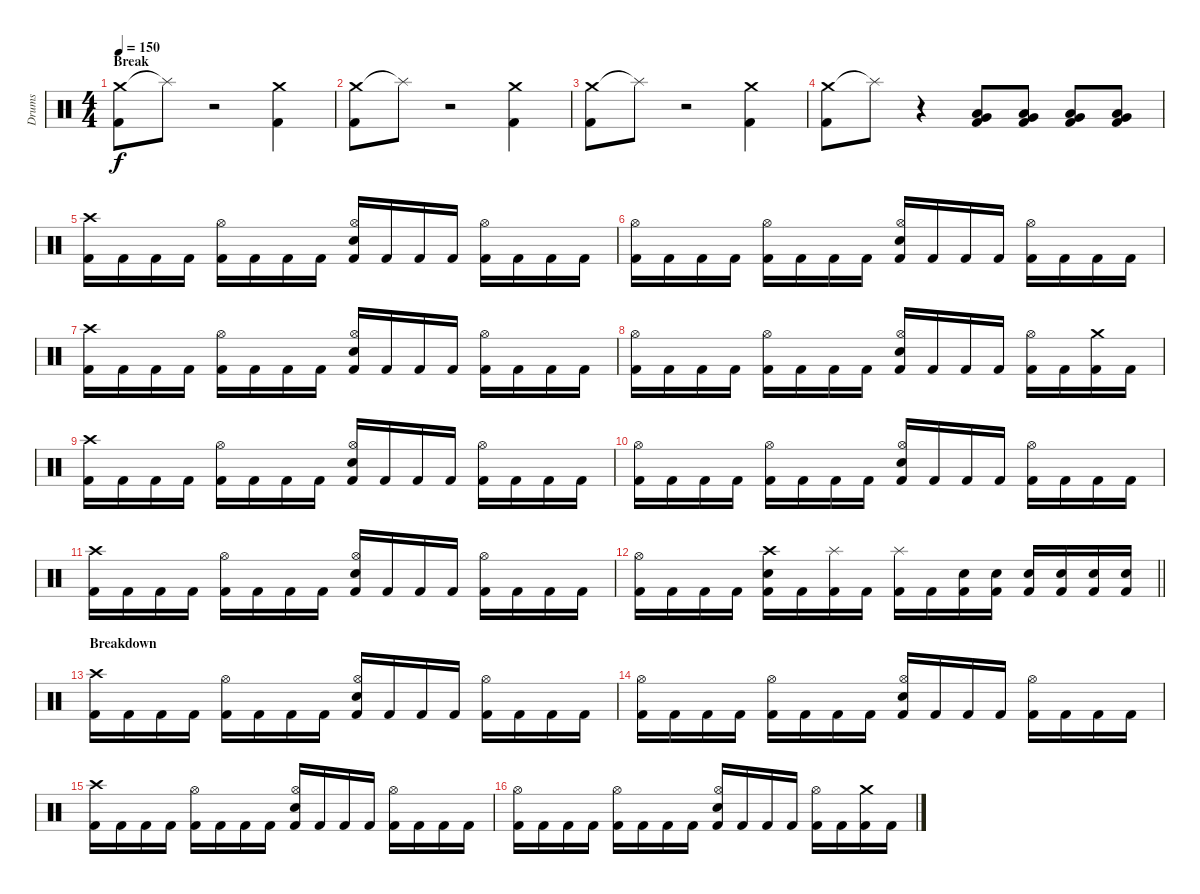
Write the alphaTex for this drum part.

\track ("Drums" "Drums") {instrument percussion}
\staff {score}
\articulation defaults
\ts (4 4)
\section ("" "Break")
\tempo 150
\clef neutral
\ks c
("Crash medium (hit)" "Kick (hit) 2").8{dy f volume 0} "Splash (hit)"{t}.8 r.2 ("Crash medium (hit)" "Kick (hit) 2").4{volume 15} |
("Crash medium (hit)" "Kick (hit) 2").8{volume 0} "Splash (hit)"{t}.8 r.2 ("Crash medium (hit)" "Kick (hit) 2").4{volume 15} |
("Crash medium (hit)" "Kick (hit) 2").8{volume 0} "Splash (hit)"{t}.8 r.2 ("Crash medium (hit)" "Kick (hit) 2").4{volume 15} |
("Crash medium (hit)" "Kick (hit) 2").8{volume 0} "Splash (hit)"{t}.8 r.4 ("Very Low Tom (hit)" "Low Floor Tom (hit)" "Kick (hit) 2").8{volume 15} ("Very Low Tom (hit)" "Low Floor Tom (hit)" "Kick (hit) 2").8 ("Very Low Tom (hit)" "Low Floor Tom (hit)" "Kick (hit) 2").8 ("Very Low Tom (hit)" "Low Floor Tom (hit)" "Kick (hit) 2").8 |
("Crash high (hit)" "Kick (hit) 2").16 "Kick (hit) 2".16 "Kick (hit) 2".16 "Kick (hit) 2".16 ("Hi-Hat (open)" "Kick (hit) 2").16 "Kick (hit) 2".16 "Kick (hit) 2".16 "Kick (hit) 2".16 ("Hi-Hat (open)" "Snare (hit) 2" "Kick (hit) 2").16 "Kick (hit) 2".16 "Kick (hit) 2".16 "Kick (hit) 2".16 ("Hi-Hat (open)" "Kick (hit) 2").16 "Kick (hit) 2".16 "Kick (hit) 2".16 "Kick (hit) 2".16 |
("Hi-Hat (open)" "Kick (hit) 2").16 "Kick (hit) 2".16 "Kick (hit) 2".16 "Kick (hit) 2".16 ("Hi-Hat (open)" "Kick (hit) 2").16 "Kick (hit) 2".16 "Kick (hit) 2".16 "Kick (hit) 2".16 ("Hi-Hat (open)" "Snare (hit) 2" "Kick (hit) 2").16 "Kick (hit) 2".16 "Kick (hit) 2".16 "Kick (hit) 2".16 ("Hi-Hat (open)" "Kick (hit) 2").16 "Kick (hit) 2".16 "Kick (hit) 2".16 "Kick (hit) 2".16 |
("Crash high (hit)" "Kick (hit) 2").16 "Kick (hit) 2".16 "Kick (hit) 2".16 "Kick (hit) 2".16 ("Hi-Hat (open)" "Kick (hit) 2").16 "Kick (hit) 2".16 "Kick (hit) 2".16 "Kick (hit) 2".16 ("Hi-Hat (open)" "Snare (hit) 2" "Kick (hit) 2").16 "Kick (hit) 2".16 "Kick (hit) 2".16 "Kick (hit) 2".16 ("Hi-Hat (open)" "Kick (hit) 2").16 "Kick (hit) 2".16 "Kick (hit) 2".16 "Kick (hit) 2".16 |
("Hi-Hat (open)" "Kick (hit) 2").16 "Kick (hit) 2".16 "Kick (hit) 2".16 "Kick (hit) 2".16 ("Hi-Hat (open)" "Kick (hit) 2").16 "Kick (hit) 2".16 "Kick (hit) 2".16 "Kick (hit) 2".16 ("Hi-Hat (open)" "Snare (hit) 2" "Kick (hit) 2").16 "Kick (hit) 2".16 "Kick (hit) 2".16 "Kick (hit) 2".16 ("Hi-Hat (open)" "Kick (hit) 2").16 "Kick (hit) 2".16 ("Crash medium (hit)" "Kick (hit) 2").16 "Kick (hit) 2".16 |
("Crash high (hit)" "Kick (hit) 2").16 "Kick (hit) 2".16 "Kick (hit) 2".16 "Kick (hit) 2".16 ("Hi-Hat (open)" "Kick (hit) 2").16 "Kick (hit) 2".16 "Kick (hit) 2".16 "Kick (hit) 2".16 ("Hi-Hat (open)" "Snare (hit) 2" "Kick (hit) 2").16 "Kick (hit) 2".16 "Kick (hit) 2".16 "Kick (hit) 2".16 ("Hi-Hat (open)" "Kick (hit) 2").16 "Kick (hit) 2".16 "Kick (hit) 2".16 "Kick (hit) 2".16 |
("Hi-Hat (open)" "Kick (hit) 2").16 "Kick (hit) 2".16 "Kick (hit) 2".16 "Kick (hit) 2".16 ("Hi-Hat (open)" "Kick (hit) 2").16 "Kick (hit) 2".16 "Kick (hit) 2".16 "Kick (hit) 2".16 ("Hi-Hat (open)" "Snare (hit) 2" "Kick (hit) 2").16 "Kick (hit) 2".16 "Kick (hit) 2".16 "Kick (hit) 2".16 ("Hi-Hat (open)" "Kick (hit) 2").16 "Kick (hit) 2".16 "Kick (hit) 2".16 "Kick (hit) 2".16 |
("Crash high (hit)" "Kick (hit) 2").16 "Kick (hit) 2".16 "Kick (hit) 2".16 "Kick (hit) 2".16 ("Hi-Hat (open)" "Kick (hit) 2").16 "Kick (hit) 2".16 "Kick (hit) 2".16 "Kick (hit) 2".16 ("Hi-Hat (open)" "Snare (hit) 2" "Kick (hit) 2").16 "Kick (hit) 2".16 "Kick (hit) 2".16 "Kick (hit) 2".16 ("Hi-Hat (open)" "Kick (hit) 2").16 "Kick (hit) 2".16 "Kick (hit) 2".16 "Kick (hit) 2".16 |
\barLineRight lightlight
("Hi-Hat (open)" "Kick (hit) 2").16 "Kick (hit) 2".16 "Kick (hit) 2".16 "Kick (hit) 2".16 ("Crash high (hit)" "Snare (hit) 2" "Kick (hit) 2").16 "Kick (hit) 2".16 ("Splash (hit)" "Kick (hit) 2").16 "Kick (hit) 2".16 ("Splash (hit)" "Kick (hit) 2").16 "Kick (hit) 2".16 ("Snare (hit) 2" "Kick (hit) 2").16 ("Snare (hit) 2" "Kick (hit) 2").16 ("Snare (hit) 2" "Kick (hit) 2").16 ("Snare (hit) 2" "Kick (hit) 2").16 ("Snare (hit) 2" "Kick (hit) 2").16 ("Snare (hit) 2" "Kick (hit) 2").16 |
\section ("" "Breakdown")
("Crash high (hit)" "Kick (hit) 2").16 "Kick (hit) 2".16 "Kick (hit) 2".16 "Kick (hit) 2".16 ("Hi-Hat (open)" "Kick (hit) 2").16 "Kick (hit) 2".16 "Kick (hit) 2".16 "Kick (hit) 2".16 ("Hi-Hat (open)" "Snare (hit) 2" "Kick (hit) 2").16 "Kick (hit) 2".16 "Kick (hit) 2".16 "Kick (hit) 2".16 ("Hi-Hat (open)" "Kick (hit) 2").16 "Kick (hit) 2".16 "Kick (hit) 2".16 "Kick (hit) 2".16 |
("Hi-Hat (open)" "Kick (hit) 2").16 "Kick (hit) 2".16 "Kick (hit) 2".16 "Kick (hit) 2".16 ("Hi-Hat (open)" "Kick (hit) 2").16 "Kick (hit) 2".16 "Kick (hit) 2".16 "Kick (hit) 2".16 ("Hi-Hat (open)" "Snare (hit) 2" "Kick (hit) 2").16 "Kick (hit) 2".16 "Kick (hit) 2".16 "Kick (hit) 2".16 ("Hi-Hat (open)" "Kick (hit) 2").16 "Kick (hit) 2".16 "Kick (hit) 2".16 "Kick (hit) 2".16 |
("Crash high (hit)" "Kick (hit) 2").16 "Kick (hit) 2".16 "Kick (hit) 2".16 "Kick (hit) 2".16 ("Hi-Hat (open)" "Kick (hit) 2").16 "Kick (hit) 2".16 "Kick (hit) 2".16 "Kick (hit) 2".16 ("Hi-Hat (open)" "Snare (hit) 2" "Kick (hit) 2").16 "Kick (hit) 2".16 "Kick (hit) 2".16 "Kick (hit) 2".16 ("Hi-Hat (open)" "Kick (hit) 2").16 "Kick (hit) 2".16 "Kick (hit) 2".16 "Kick (hit) 2".16 |
("Hi-Hat (open)" "Kick (hit) 2").16 "Kick (hit) 2".16 "Kick (hit) 2".16 "Kick (hit) 2".16 ("Hi-Hat (open)" "Kick (hit) 2").16 "Kick (hit) 2".16 "Kick (hit) 2".16 "Kick (hit) 2".16 ("Hi-Hat (open)" "Snare (hit) 2" "Kick (hit) 2").16 "Kick (hit) 2".16 "Kick (hit) 2".16 "Kick (hit) 2".16 ("Hi-Hat (open)" "Kick (hit) 2").16 "Kick (hit) 2".16 ("Crash medium (hit)" "Kick (hit) 2").16 "Kick (hit) 2".16
